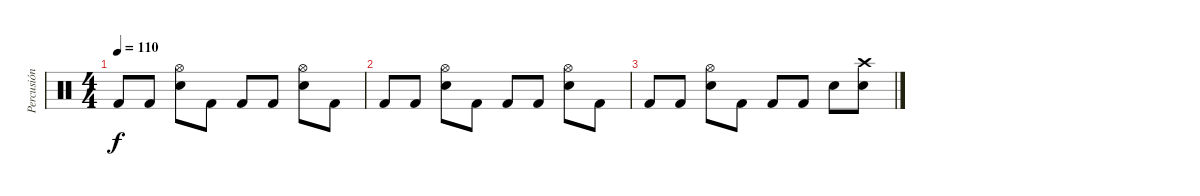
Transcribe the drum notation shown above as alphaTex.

\track ("Percusión" "Percusión") {instrument percussion}
\staff {score}
\articulation defaults
\ts (4 4)
\tempo 110
\clef neutral
\ks c "Kick (hit) 2".8{dy f} "Kick (hit) 2".8
("Hi-Hat (open)" "Snare (hit) 2").8 "Kick (hit) 2".8 "Kick (hit) 2".8 "Kick (hit) 2".8 ("Hi-Hat (open)" "Snare (hit) 2").8 "Kick (hit) 2".8 |
"Kick (hit) 2".8 "Kick (hit) 2".8 ("Hi-Hat (open)" "Snare (hit) 2").8 "Kick (hit) 2".8 "Kick (hit) 2".8 "Kick (hit) 2".8 ("Hi-Hat (open)" "Snare (hit) 2").8 "Kick (hit) 2".8 |
"Kick (hit) 2".8 "Kick (hit) 2".8 ("Hi-Hat (open)" "Snare (hit) 2").8 "Kick (hit) 2".8 "Kick (hit) 2".8 "Kick (hit) 2".8 "Snare (hit) 2".8 ("Crash high (hit)" "Electric Snare (hit)").8
